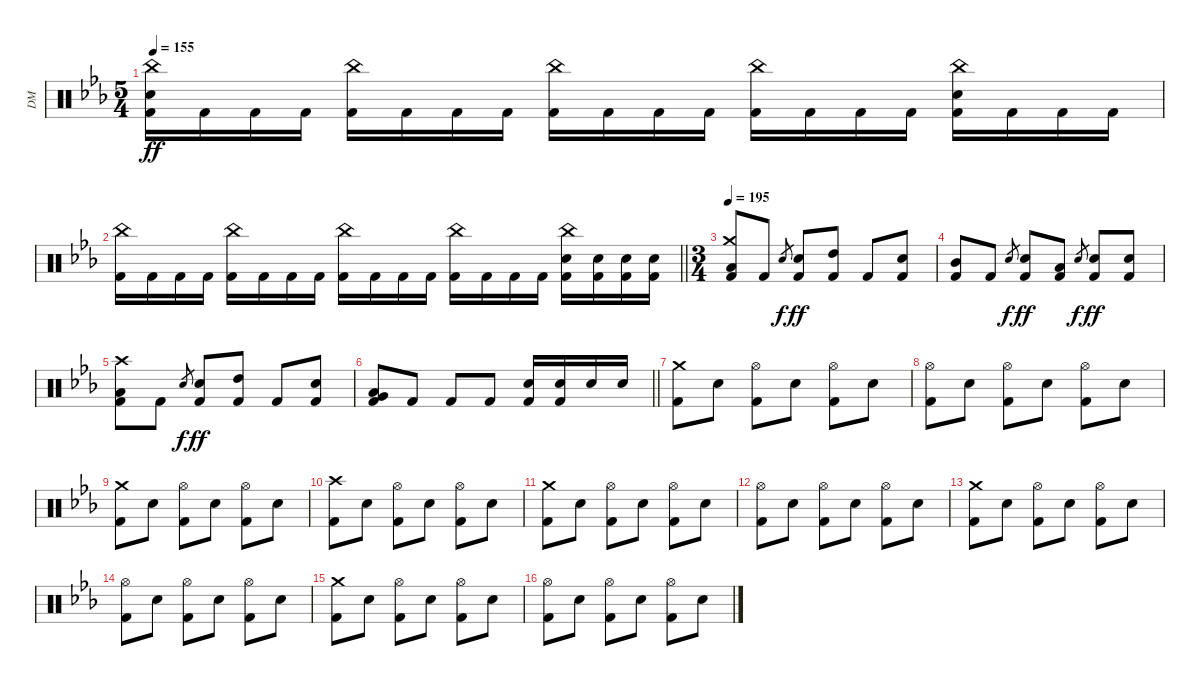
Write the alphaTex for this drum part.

\track ("DM" "DM") {instrument percussion}
\staff {score}
\articulation defaults
\ts (5 4)
\tempo 155
\clef neutral
\ks cminor
("China (hit)" "Electric Snare (hit)" "Kick (hit) 2").16{dy ff} "Kick (hit) 2".16 "Kick (hit) 2".16 "Kick (hit) 2".16 ("China (hit)" "Kick (hit) 2").16 "Kick (hit) 2".16 "Kick (hit) 2".16 "Kick (hit) 2".16 ("China (hit)" "Kick (hit) 2").16 "Kick (hit) 2".16 "Kick (hit) 2".16 "Kick (hit) 2".16 ("China (hit)" "Kick (hit) 2").16 "Kick (hit) 2".16 "Kick (hit) 2".16 "Kick (hit) 2".16 ("China (hit)" "Electric Snare (hit)" "Kick (hit) 2").16 "Kick (hit) 2".16 "Kick (hit) 2".16 "Kick (hit) 2".16 |
\barLineRight lightlight
("China (hit)" "Kick (hit) 2").16 "Kick (hit) 2".16 "Kick (hit) 2".16 "Kick (hit) 2".16 ("China (hit)" "Kick (hit) 2").16 "Kick (hit) 2".16 "Kick (hit) 2".16 "Kick (hit) 2".16 ("China (hit)" "Kick (hit) 2").16 "Kick (hit) 2".16 "Kick (hit) 2".16 "Kick (hit) 2".16 ("China (hit)" "Kick (hit) 2").16 "Kick (hit) 2".16 "Kick (hit) 2".16 "Kick (hit) 2".16 ("China (hit)" "Electric Snare (hit)" "Kick (hit) 2").16 ("Electric Snare (hit)" "Kick (hit) 2").16 ("Electric Snare (hit)" "Kick (hit) 2").16 ("Electric Snare (hit)" "Kick (hit) 2").16 |
\ts (3 4)
\section ("" "")
\tempo 195
("Crash medium (hit)" "Low Tom (hit)" "Kick (hit) 2").8 "Kick (hit) 2".8 "Electric Snare (hit)".8{gr dy f} ("Electric Snare (hit)" "Kick (hit) 2").8{dy ff} ("High Tom (hit)" "Kick (hit) 2").8 "Kick (hit) 2".8 ("Electric Snare (hit)" "Kick (hit) 2").8 |
("Mid Tom (hit)" "Kick (hit) 2").8 "Kick (hit) 2".8 "Electric Snare (hit)".8{gr dy f} ("Electric Snare (hit)" "Kick (hit) 2").8{dy ff} ("Low Tom (hit)" "Kick (hit) 2").8 "Electric Snare (hit)".8{gr dy f} ("Electric Snare (hit)" "Kick (hit) 2").8{dy ff} ("Electric Snare (hit)" "Kick (hit) 2").8 |
("Crash high (hit)" "Low Tom (hit)" "Kick (hit) 2").8 "Kick (hit) 2".8 "Electric Snare (hit)".8{gr dy f} ("Electric Snare (hit)" "Kick (hit) 2").8{dy ff} ("High Tom (hit)" "Kick (hit) 2").8 "Kick (hit) 2".8 ("Electric Snare (hit)" "Kick (hit) 2").8 |
\barLineRight lightlight
("Very Low Tom (hit)" "Low Floor Tom (hit)" "Kick (hit) 2").8 "Kick (hit) 2".8 "Kick (hit) 2".8 "Kick (hit) 2".8 ("Electric Snare (hit)" "Kick (hit) 2").16 ("Electric Snare (hit)" "Kick (hit) 2").16 "Electric Snare (hit)".16 "Electric Snare (hit)".16 |
\section ("" "")
("Crash medium (hit)" "Kick (hit) 2").8 "Electric Snare (hit)".8 ("Hi-Hat (open)" "Kick (hit) 2").8 "Electric Snare (hit)".8 ("Hi-Hat (open)" "Kick (hit) 2").8 "Electric Snare (hit)".8 |
("Hi-Hat (open)" "Kick (hit) 2").8 "Electric Snare (hit)".8 ("Hi-Hat (open)" "Kick (hit) 2").8 "Electric Snare (hit)".8 ("Hi-Hat (open)" "Kick (hit) 2").8 "Electric Snare (hit)".8 |
("Crash medium (hit)" "Kick (hit) 2").8 "Electric Snare (hit)".8 ("Hi-Hat (open)" "Kick (hit) 2").8 "Electric Snare (hit)".8 ("Hi-Hat (open)" "Kick (hit) 2").8 "Electric Snare (hit)".8 |
("Crash high (hit)" "Kick (hit) 2").8 "Electric Snare (hit)".8 ("Hi-Hat (open)" "Kick (hit) 2").8 "Electric Snare (hit)".8 ("Hi-Hat (open)" "Kick (hit) 2").8 "Electric Snare (hit)".8 |
("Crash medium (hit)" "Kick (hit) 2").8 "Electric Snare (hit)".8 ("Hi-Hat (open)" "Kick (hit) 2").8 "Electric Snare (hit)".8 ("Hi-Hat (open)" "Kick (hit) 2").8 "Electric Snare (hit)".8 |
("Hi-Hat (open)" "Kick (hit) 2").8 "Electric Snare (hit)".8 ("Hi-Hat (open)" "Kick (hit) 2").8 "Electric Snare (hit)".8 ("Hi-Hat (open)" "Kick (hit) 2").8 "Electric Snare (hit)".8 |
("Crash medium (hit)" "Kick (hit) 2").8 "Electric Snare (hit)".8 ("Hi-Hat (open)" "Kick (hit) 2").8 "Electric Snare (hit)".8 ("Hi-Hat (open)" "Kick (hit) 2").8 "Electric Snare (hit)".8 |
("Hi-Hat (open)" "Kick (hit) 2").8 "Electric Snare (hit)".8 ("Hi-Hat (open)" "Kick (hit) 2").8 "Electric Snare (hit)".8 ("Hi-Hat (open)" "Kick (hit) 2").8 "Electric Snare (hit)".8 |
("Crash medium (hit)" "Kick (hit) 2").8 "Electric Snare (hit)".8 ("Hi-Hat (open)" "Kick (hit) 2").8 "Electric Snare (hit)".8 ("Hi-Hat (open)" "Kick (hit) 2").8 "Electric Snare (hit)".8 |
("Hi-Hat (open)" "Kick (hit) 2").8 "Electric Snare (hit)".8 ("Hi-Hat (open)" "Kick (hit) 2").8 "Electric Snare (hit)".8 ("Hi-Hat (open)" "Kick (hit) 2").8 "Electric Snare (hit)".8
